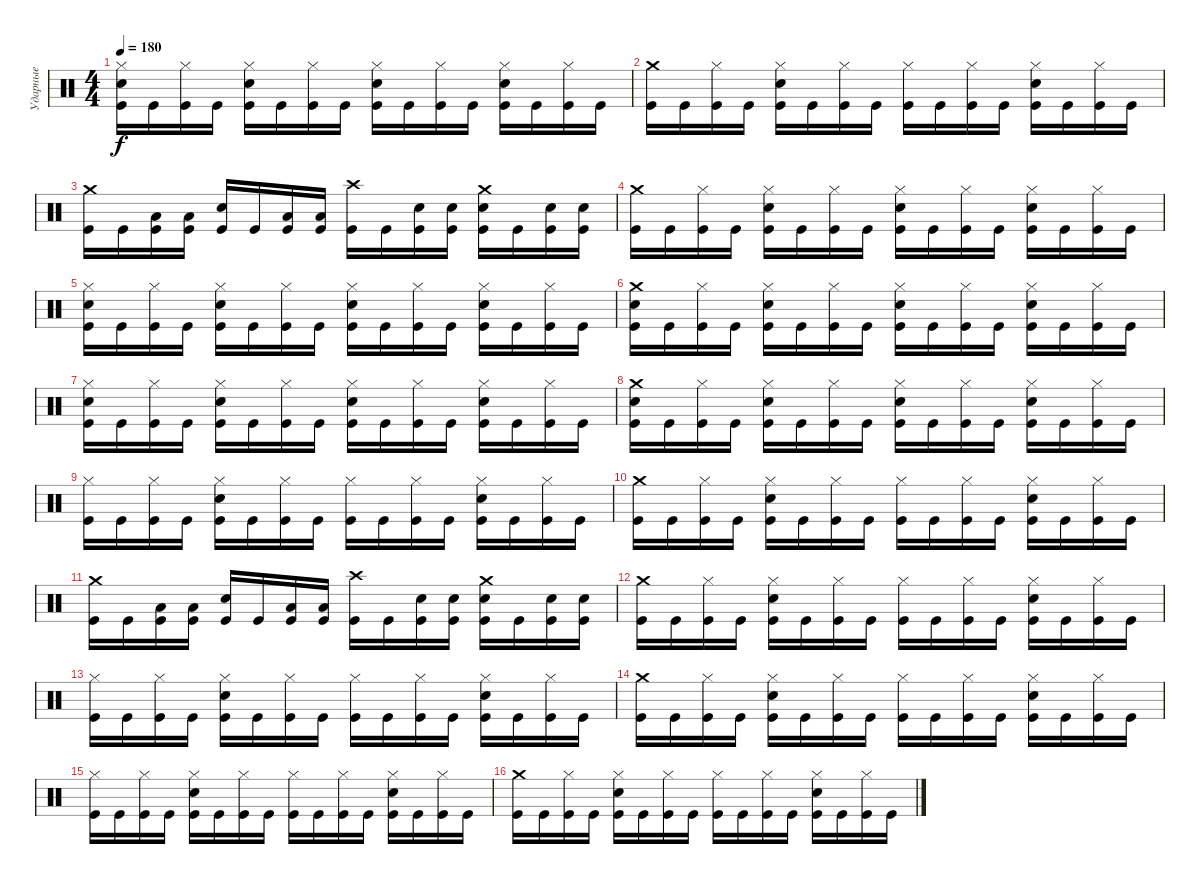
\track ("Ударные" "Ударные") {instrument percussion}
\staff {score}
\articulation defaults
\ts (4 4)
\tempo 180
\clef neutral
\ks c
("Hi-Hat (closed)" "Electric Snare (hit)" "Kick (hit)").16{dy f} "Kick (hit)".16 ("Hi-Hat (closed)" "Kick (hit)").16 "Kick (hit)".16 ("Hi-Hat (closed)" "Electric Snare (hit)" "Kick (hit)").16 "Kick (hit)".16 ("Hi-Hat (closed)" "Kick (hit)").16 "Kick (hit)".16 ("Hi-Hat (closed)" "Electric Snare (hit)" "Kick (hit)").16 "Kick (hit)".16 ("Hi-Hat (closed)" "Kick (hit)").16 "Kick (hit)".16 ("Hi-Hat (closed)" "Electric Snare (hit)" "Kick (hit)").16 "Kick (hit)".16 ("Hi-Hat (closed)" "Kick (hit)").16 "Kick (hit)".16 |
("Crash medium (hit)" "Kick (hit)").16 "Kick (hit)".16 ("Hi-Hat (closed)" "Kick (hit)").16 "Kick (hit)".16 ("Hi-Hat (closed)" "Electric Snare (hit)" "Kick (hit)").16 "Kick (hit)".16 ("Hi-Hat (closed)" "Kick (hit)").16 "Kick (hit)".16 ("Hi-Hat (closed)" "Kick (hit)").16 "Kick (hit)".16 ("Hi-Hat (closed)" "Kick (hit)").16 "Kick (hit)".16 ("Hi-Hat (closed)" "Electric Snare (hit)" "Kick (hit)").16 "Kick (hit)".16 ("Hi-Hat (closed)" "Kick (hit)").16 "Kick (hit)".16 |
("Crash medium (hit)" "Kick (hit)").16 "Kick (hit)".16 ("Low Tom (hit)" "Kick (hit)").16 ("Low Tom (hit)" "Kick (hit)").16 ("Electric Snare (hit)" "Kick (hit)").16 "Kick (hit)".16 ("Low Tom (hit)" "Kick (hit)").16 ("Low Tom (hit)" "Kick (hit)").16 ("Crash high (hit)" "Kick (hit)").16 "Kick (hit)".16 ("Electric Snare (hit)" "Kick (hit)").16 ("Electric Snare (hit)" "Kick (hit)").16 ("Crash medium (hit)" "Electric Snare (hit)" "Kick (hit)").16 "Kick (hit)".16 ("Electric Snare (hit)" "Kick (hit)").16 ("Electric Snare (hit)" "Kick (hit)").16 |
("Crash medium (hit)" "Kick (hit)").16 "Kick (hit)".16 ("Hi-Hat (closed)" "Kick (hit)").16 "Kick (hit)".16 ("Hi-Hat (closed)" "Electric Snare (hit)" "Kick (hit)").16 "Kick (hit)".16 ("Hi-Hat (closed)" "Kick (hit)").16 "Kick (hit)".16 ("Hi-Hat (closed)" "Electric Snare (hit)" "Kick (hit)").16 "Kick (hit)".16 ("Hi-Hat (closed)" "Kick (hit)").16 "Kick (hit)".16 ("Hi-Hat (closed)" "Electric Snare (hit)" "Kick (hit)").16 "Kick (hit)".16 ("Hi-Hat (closed)" "Kick (hit)").16 "Kick (hit)".16 |
("Hi-Hat (closed)" "Electric Snare (hit)" "Kick (hit)").16 "Kick (hit)".16 ("Hi-Hat (closed)" "Kick (hit)").16 "Kick (hit)".16 ("Hi-Hat (closed)" "Electric Snare (hit)" "Kick (hit)").16 "Kick (hit)".16 ("Hi-Hat (closed)" "Kick (hit)").16 "Kick (hit)".16 ("Hi-Hat (closed)" "Electric Snare (hit)" "Kick (hit)").16 "Kick (hit)".16 ("Hi-Hat (closed)" "Kick (hit)").16 "Kick (hit)".16 ("Hi-Hat (closed)" "Electric Snare (hit)" "Kick (hit)").16 "Kick (hit)".16 ("Hi-Hat (closed)" "Kick (hit)").16 "Kick (hit)".16 |
("Crash medium (hit)" "Electric Snare (hit)" "Kick (hit)").16 "Kick (hit)".16 ("Hi-Hat (closed)" "Kick (hit)").16 "Kick (hit)".16 ("Hi-Hat (closed)" "Electric Snare (hit)" "Kick (hit)").16 "Kick (hit)".16 ("Hi-Hat (closed)" "Kick (hit)").16 "Kick (hit)".16 ("Hi-Hat (closed)" "Electric Snare (hit)" "Kick (hit)").16 "Kick (hit)".16 ("Hi-Hat (closed)" "Kick (hit)").16 "Kick (hit)".16 ("Hi-Hat (closed)" "Electric Snare (hit)" "Kick (hit)").16 "Kick (hit)".16 ("Hi-Hat (closed)" "Kick (hit)").16 "Kick (hit)".16 |
("Hi-Hat (closed)" "Electric Snare (hit)" "Kick (hit)").16 "Kick (hit)".16 ("Hi-Hat (closed)" "Kick (hit)").16 "Kick (hit)".16 ("Hi-Hat (closed)" "Electric Snare (hit)" "Kick (hit)").16 "Kick (hit)".16 ("Hi-Hat (closed)" "Kick (hit)").16 "Kick (hit)".16 ("Hi-Hat (closed)" "Electric Snare (hit)" "Kick (hit)").16 "Kick (hit)".16 ("Hi-Hat (closed)" "Kick (hit)").16 "Kick (hit)".16 ("Hi-Hat (closed)" "Electric Snare (hit)" "Kick (hit)").16 "Kick (hit)".16 ("Hi-Hat (closed)" "Kick (hit)").16 "Kick (hit)".16 |
("Crash medium (hit)" "Electric Snare (hit)" "Kick (hit)").16 "Kick (hit)".16 ("Hi-Hat (closed)" "Kick (hit)").16 "Kick (hit)".16 ("Hi-Hat (closed)" "Electric Snare (hit)" "Kick (hit)").16 "Kick (hit)".16 ("Hi-Hat (closed)" "Kick (hit)").16 "Kick (hit)".16 ("Hi-Hat (closed)" "Electric Snare (hit)" "Kick (hit)").16 "Kick (hit)".16 ("Hi-Hat (closed)" "Kick (hit)").16 "Kick (hit)".16 ("Hi-Hat (closed)" "Electric Snare (hit)" "Kick (hit)").16 "Kick (hit)".16 ("Hi-Hat (closed)" "Kick (hit)").16 "Kick (hit)".16 |
("Hi-Hat (closed)" "Kick (hit)").16 "Kick (hit)".16 ("Hi-Hat (closed)" "Kick (hit)").16 "Kick (hit)".16 ("Hi-Hat (closed)" "Electric Snare (hit)" "Kick (hit)").16 "Kick (hit)".16 ("Hi-Hat (closed)" "Kick (hit)").16 "Kick (hit)".16 ("Hi-Hat (closed)" "Kick (hit)").16 "Kick (hit)".16 ("Hi-Hat (closed)" "Kick (hit)").16 "Kick (hit)".16 ("Hi-Hat (closed)" "Electric Snare (hit)" "Kick (hit)").16 "Kick (hit)".16 ("Hi-Hat (closed)" "Kick (hit)").16 "Kick (hit)".16 |
("Crash medium (hit)" "Kick (hit)").16 "Kick (hit)".16 ("Hi-Hat (closed)" "Kick (hit)").16 "Kick (hit)".16 ("Hi-Hat (closed)" "Electric Snare (hit)" "Kick (hit)").16 "Kick (hit)".16 ("Hi-Hat (closed)" "Kick (hit)").16 "Kick (hit)".16 ("Hi-Hat (closed)" "Kick (hit)").16 "Kick (hit)".16 ("Hi-Hat (closed)" "Kick (hit)").16 "Kick (hit)".16 ("Hi-Hat (closed)" "Electric Snare (hit)" "Kick (hit)").16 "Kick (hit)".16 ("Hi-Hat (closed)" "Kick (hit)").16 "Kick (hit)".16 |
("Crash medium (hit)" "Kick (hit)").16 "Kick (hit)".16 ("Low Tom (hit)" "Kick (hit)").16 ("Low Tom (hit)" "Kick (hit)").16 ("Electric Snare (hit)" "Kick (hit)").16 "Kick (hit)".16 ("Low Tom (hit)" "Kick (hit)").16 ("Low Tom (hit)" "Kick (hit)").16 ("Crash high (hit)" "Kick (hit)").16 "Kick (hit)".16 ("Electric Snare (hit)" "Kick (hit)").16 ("Electric Snare (hit)" "Kick (hit)").16 ("Crash medium (hit)" "Electric Snare (hit)" "Kick (hit)").16 "Kick (hit)".16 ("Electric Snare (hit)" "Kick (hit)").16 ("Electric Snare (hit)" "Kick (hit)").16 |
("Crash medium (hit)" "Kick (hit)").16 "Kick (hit)".16 ("Hi-Hat (closed)" "Kick (hit)").16 "Kick (hit)".16 ("Hi-Hat (closed)" "Electric Snare (hit)" "Kick (hit)").16 "Kick (hit)".16 ("Hi-Hat (closed)" "Kick (hit)").16 "Kick (hit)".16 ("Hi-Hat (closed)" "Kick (hit)").16 "Kick (hit)".16 ("Hi-Hat (closed)" "Kick (hit)").16 "Kick (hit)".16 ("Hi-Hat (closed)" "Electric Snare (hit)" "Kick (hit)").16 "Kick (hit)".16 ("Hi-Hat (closed)" "Kick (hit)").16 "Kick (hit)".16 |
("Hi-Hat (closed)" "Kick (hit)").16 "Kick (hit)".16 ("Hi-Hat (closed)" "Kick (hit)").16 "Kick (hit)".16 ("Hi-Hat (closed)" "Electric Snare (hit)" "Kick (hit)").16 "Kick (hit)".16 ("Hi-Hat (closed)" "Kick (hit)").16 "Kick (hit)".16 ("Hi-Hat (closed)" "Kick (hit)").16 "Kick (hit)".16 ("Hi-Hat (closed)" "Kick (hit)").16 "Kick (hit)".16 ("Hi-Hat (closed)" "Electric Snare (hit)" "Kick (hit)").16 "Kick (hit)".16 ("Hi-Hat (closed)" "Kick (hit)").16 "Kick (hit)".16 |
("Crash medium (hit)" "Kick (hit)").16 "Kick (hit)".16 ("Hi-Hat (closed)" "Kick (hit)").16 "Kick (hit)".16 ("Hi-Hat (closed)" "Electric Snare (hit)" "Kick (hit)").16 "Kick (hit)".16 ("Hi-Hat (closed)" "Kick (hit)").16 "Kick (hit)".16 ("Hi-Hat (closed)" "Kick (hit)").16 "Kick (hit)".16 ("Hi-Hat (closed)" "Kick (hit)").16 "Kick (hit)".16 ("Hi-Hat (closed)" "Electric Snare (hit)" "Kick (hit)").16 "Kick (hit)".16 ("Hi-Hat (closed)" "Kick (hit)").16 "Kick (hit)".16 |
("Hi-Hat (closed)" "Kick (hit)").16 "Kick (hit)".16 ("Hi-Hat (closed)" "Kick (hit)").16 "Kick (hit)".16 ("Hi-Hat (closed)" "Electric Snare (hit)" "Kick (hit)").16 "Kick (hit)".16 ("Hi-Hat (closed)" "Kick (hit)").16 "Kick (hit)".16 ("Hi-Hat (closed)" "Kick (hit)").16 "Kick (hit)".16 ("Hi-Hat (closed)" "Kick (hit)").16 "Kick (hit)".16 ("Hi-Hat (closed)" "Electric Snare (hit)" "Kick (hit)").16 "Kick (hit)".16 ("Hi-Hat (closed)" "Kick (hit)").16 "Kick (hit)".16 |
("Crash medium (hit)" "Kick (hit)").16 "Kick (hit)".16 ("Hi-Hat (closed)" "Kick (hit)").16 "Kick (hit)".16 ("Hi-Hat (closed)" "Electric Snare (hit)" "Kick (hit)").16 "Kick (hit)".16 ("Hi-Hat (closed)" "Kick (hit)").16 "Kick (hit)".16 ("Hi-Hat (closed)" "Kick (hit)").16 "Kick (hit)".16 ("Hi-Hat (closed)" "Kick (hit)").16 "Kick (hit)".16 ("Hi-Hat (closed)" "Electric Snare (hit)" "Kick (hit)").16 "Kick (hit)".16 ("Hi-Hat (closed)" "Kick (hit)").16 "Kick (hit)".16
